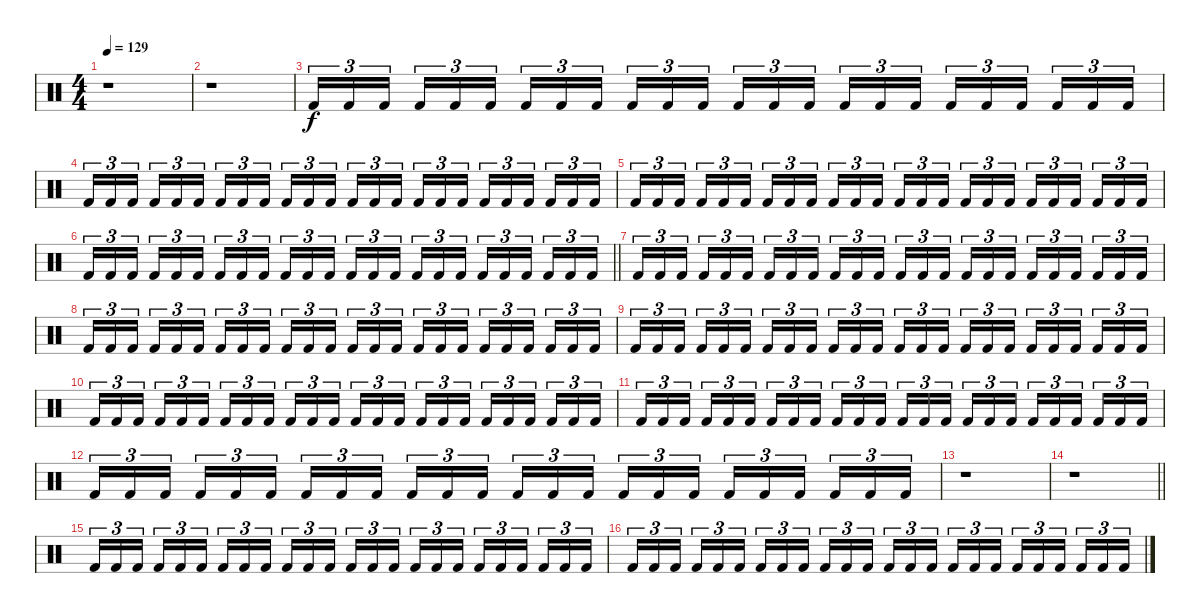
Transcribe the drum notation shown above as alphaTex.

\track "" {instrument percussion}
\staff {score}
\articulation defaults
\ts (4 4)
\tempo 129
\clef neutral
\ks c
r.1{dy f} |
r.1 |
"Kick (hit) 2".16{tu (3 2)} "Kick (hit) 2".16{tu (3 2)} "Kick (hit) 2".16{tu (3 2) beam splitsecondary} "Kick (hit) 2".16{tu (3 2)} "Kick (hit) 2".16{tu (3 2)} "Kick (hit) 2".16{tu (3 2)} "Kick (hit) 2".16{tu (3 2)} "Kick (hit) 2".16{tu (3 2)} "Kick (hit) 2".16{tu (3 2) beam splitsecondary} "Kick (hit) 2".16{tu (3 2)} "Kick (hit) 2".16{tu (3 2)} "Kick (hit) 2".16{tu (3 2)} "Kick (hit) 2".16{tu (3 2)} "Kick (hit) 2".16{tu (3 2)} "Kick (hit) 2".16{tu (3 2) beam splitsecondary} "Kick (hit) 2".16{tu (3 2)} "Kick (hit) 2".16{tu (3 2)} "Kick (hit) 2".16{tu (3 2)} "Kick (hit) 2".16{tu (3 2)} "Kick (hit) 2".16{tu (3 2)} "Kick (hit) 2".16{tu (3 2) beam splitsecondary} "Kick (hit) 2".16{tu (3 2)} "Kick (hit) 2".16{tu (3 2)} "Kick (hit) 2".16{tu (3 2)} |
"Kick (hit) 2".16{tu (3 2)} "Kick (hit) 2".16{tu (3 2)} "Kick (hit) 2".16{tu (3 2) beam splitsecondary} "Kick (hit) 2".16{tu (3 2)} "Kick (hit) 2".16{tu (3 2)} "Kick (hit) 2".16{tu (3 2)} "Kick (hit) 2".16{tu (3 2)} "Kick (hit) 2".16{tu (3 2)} "Kick (hit) 2".16{tu (3 2) beam splitsecondary} "Kick (hit) 2".16{tu (3 2)} "Kick (hit) 2".16{tu (3 2)} "Kick (hit) 2".16{tu (3 2)} "Kick (hit) 2".16{tu (3 2)} "Kick (hit) 2".16{tu (3 2)} "Kick (hit) 2".16{tu (3 2) beam splitsecondary} "Kick (hit) 2".16{tu (3 2)} "Kick (hit) 2".16{tu (3 2)} "Kick (hit) 2".16{tu (3 2)} "Kick (hit) 2".16{tu (3 2)} "Kick (hit) 2".16{tu (3 2)} "Kick (hit) 2".16{tu (3 2) beam splitsecondary} "Kick (hit) 2".16{tu (3 2)} "Kick (hit) 2".16{tu (3 2)} "Kick (hit) 2".16{tu (3 2)} |
"Kick (hit) 2".16{tu (3 2)} "Kick (hit) 2".16{tu (3 2)} "Kick (hit) 2".16{tu (3 2) beam splitsecondary} "Kick (hit) 2".16{tu (3 2)} "Kick (hit) 2".16{tu (3 2)} "Kick (hit) 2".16{tu (3 2)} "Kick (hit) 2".16{tu (3 2)} "Kick (hit) 2".16{tu (3 2)} "Kick (hit) 2".16{tu (3 2) beam splitsecondary} "Kick (hit) 2".16{tu (3 2)} "Kick (hit) 2".16{tu (3 2)} "Kick (hit) 2".16{tu (3 2)} "Kick (hit) 2".16{tu (3 2)} "Kick (hit) 2".16{tu (3 2)} "Kick (hit) 2".16{tu (3 2) beam splitsecondary} "Kick (hit) 2".16{tu (3 2)} "Kick (hit) 2".16{tu (3 2)} "Kick (hit) 2".16{tu (3 2)} "Kick (hit) 2".16{tu (3 2)} "Kick (hit) 2".16{tu (3 2)} "Kick (hit) 2".16{tu (3 2) beam splitsecondary} "Kick (hit) 2".16{tu (3 2)} "Kick (hit) 2".16{tu (3 2)} "Kick (hit) 2".16{tu (3 2)} |
\barLineRight lightlight "Kick (hit) 2".16{tu (3 2)} "Kick (hit) 2".16{tu (3 2)} "Kick (hit) 2".16{tu (3 2) beam splitsecondary} "Kick (hit) 2".16{tu (3 2)} "Kick (hit) 2".16{tu (3 2)} "Kick (hit) 2".16{tu (3 2)} "Kick (hit) 2".16{tu (3 2)} "Kick (hit) 2".16{tu (3 2)} "Kick (hit) 2".16{tu (3 2) beam splitsecondary} "Kick (hit) 2".16{tu (3 2)} "Kick (hit) 2".16{tu (3 2)} "Kick (hit) 2".16{tu (3 2)} "Kick (hit) 2".16{tu (3 2)} "Kick (hit) 2".16{tu (3 2)} "Kick (hit) 2".16{tu (3 2) beam splitsecondary} "Kick (hit) 2".16{tu (3 2)} "Kick (hit) 2".16{tu (3 2)} "Kick (hit) 2".16{tu (3 2)} "Kick (hit) 2".16{tu (3 2)} "Kick (hit) 2".16{tu (3 2)} "Kick (hit) 2".16{tu (3 2) beam splitsecondary} "Kick (hit) 2".16{tu (3 2)} "Kick (hit) 2".16{tu (3 2)} "Kick (hit) 2".16{tu (3 2)}
|
"Kick (hit) 2".16{tu (3 2)} "Kick (hit) 2".16{tu (3 2)} "Kick (hit) 2".16{tu (3 2) beam splitsecondary} "Kick (hit) 2".16{tu (3 2)} "Kick (hit) 2".16{tu (3 2)} "Kick (hit) 2".16{tu (3 2)} "Kick (hit) 2".16{tu (3 2)} "Kick (hit) 2".16{tu (3 2)} "Kick (hit) 2".16{tu (3 2) beam splitsecondary} "Kick (hit) 2".16{tu (3 2)} "Kick (hit) 2".16{tu (3 2)} "Kick (hit) 2".16{tu (3 2)} "Kick (hit) 2".16{tu (3 2)} "Kick (hit) 2".16{tu (3 2)} "Kick (hit) 2".16{tu (3 2) beam splitsecondary} "Kick (hit) 2".16{tu (3 2)} "Kick (hit) 2".16{tu (3 2)} "Kick (hit) 2".16{tu (3 2)} "Kick (hit) 2".16{tu (3 2)} "Kick (hit) 2".16{tu (3 2)} "Kick (hit) 2".16{tu (3 2) beam splitsecondary} "Kick (hit) 2".16{tu (3 2)} "Kick (hit) 2".16{tu (3 2)} "Kick (hit) 2".16{tu (3 2)} |
"Kick (hit) 2".16{tu (3 2)} "Kick (hit) 2".16{tu (3 2)} "Kick (hit) 2".16{tu (3 2) beam splitsecondary} "Kick (hit) 2".16{tu (3 2)} "Kick (hit) 2".16{tu (3 2)} "Kick (hit) 2".16{tu (3 2)} "Kick (hit) 2".16{tu (3 2)} "Kick (hit) 2".16{tu (3 2)} "Kick (hit) 2".16{tu (3 2) beam splitsecondary} "Kick (hit) 2".16{tu (3 2)} "Kick (hit) 2".16{tu (3 2)} "Kick (hit) 2".16{tu (3 2)} "Kick (hit) 2".16{tu (3 2)} "Kick (hit) 2".16{tu (3 2)} "Kick (hit) 2".16{tu (3 2) beam splitsecondary} "Kick (hit) 2".16{tu (3 2)} "Kick (hit) 2".16{tu (3 2)} "Kick (hit) 2".16{tu (3 2)} "Kick (hit) 2".16{tu (3 2)} "Kick (hit) 2".16{tu (3 2)} "Kick (hit) 2".16{tu (3 2) beam splitsecondary} "Kick (hit) 2".16{tu (3 2)} "Kick (hit) 2".16{tu (3 2)} "Kick (hit) 2".16{tu (3 2)} |
"Kick (hit) 2".16{tu (3 2)} "Kick (hit) 2".16{tu (3 2)} "Kick (hit) 2".16{tu (3 2) beam splitsecondary} "Kick (hit) 2".16{tu (3 2)} "Kick (hit) 2".16{tu (3 2)} "Kick (hit) 2".16{tu (3 2)} "Kick (hit) 2".16{tu (3 2)} "Kick (hit) 2".16{tu (3 2)} "Kick (hit) 2".16{tu (3 2) beam splitsecondary} "Kick (hit) 2".16{tu (3 2)} "Kick (hit) 2".16{tu (3 2)} "Kick (hit) 2".16{tu (3 2)} "Kick (hit) 2".16{tu (3 2)} "Kick (hit) 2".16{tu (3 2)} "Kick (hit) 2".16{tu (3 2) beam splitsecondary} "Kick (hit) 2".16{tu (3 2)} "Kick (hit) 2".16{tu (3 2)} "Kick (hit) 2".16{tu (3 2)} "Kick (hit) 2".16{tu (3 2)} "Kick (hit) 2".16{tu (3 2)} "Kick (hit) 2".16{tu (3 2) beam splitsecondary} "Kick (hit) 2".16{tu (3 2)} "Kick (hit) 2".16{tu (3 2)} "Kick (hit) 2".16{tu (3 2)} |
"Kick (hit) 2".16{tu (3 2)} "Kick (hit) 2".16{tu (3 2)} "Kick (hit) 2".16{tu (3 2) beam splitsecondary} "Kick (hit) 2".16{tu (3 2)} "Kick (hit) 2".16{tu (3 2)} "Kick (hit) 2".16{tu (3 2)} "Kick (hit) 2".16{tu (3 2)} "Kick (hit) 2".16{tu (3 2)} "Kick (hit) 2".16{tu (3 2) beam splitsecondary} "Kick (hit) 2".16{tu (3 2)} "Kick (hit) 2".16{tu (3 2)} "Kick (hit) 2".16{tu (3 2)} "Kick (hit) 2".16{tu (3 2)} "Kick (hit) 2".16{tu (3 2)} "Kick (hit) 2".16{tu (3 2) beam splitsecondary} "Kick (hit) 2".16{tu (3 2)} "Kick (hit) 2".16{tu (3 2)} "Kick (hit) 2".16{tu (3 2)} "Kick (hit) 2".16{tu (3 2)} "Kick (hit) 2".16{tu (3 2)} "Kick (hit) 2".16{tu (3 2) beam splitsecondary} "Kick (hit) 2".16{tu (3 2)} "Kick (hit) 2".16{tu (3 2)} "Kick (hit) 2".16{tu (3 2)} |
"Kick (hit) 2".16{tu (3 2)} "Kick (hit) 2".16{tu (3 2)} "Kick (hit) 2".16{tu (3 2) beam splitsecondary} "Kick (hit) 2".16{tu (3 2)} "Kick (hit) 2".16{tu (3 2)} "Kick (hit) 2".16{tu (3 2)} "Kick (hit) 2".16{tu (3 2)} "Kick (hit) 2".16{tu (3 2)} "Kick (hit) 2".16{tu (3 2) beam splitsecondary} "Kick (hit) 2".16{tu (3 2)} "Kick (hit) 2".16{tu (3 2)} "Kick (hit) 2".16{tu (3 2)} "Kick (hit) 2".16{tu (3 2)} "Kick (hit) 2".16{tu (3 2)} "Kick (hit) 2".16{tu (3 2) beam splitsecondary} "Kick (hit) 2".16{tu (3 2)} "Kick (hit) 2".16{tu (3 2)} "Kick (hit) 2".16{tu (3 2)} "Kick (hit) 2".16{tu (3 2)} "Kick (hit) 2".16{tu (3 2)} "Kick (hit) 2".16{tu (3 2) beam splitsecondary} "Kick (hit) 2".16{tu (3 2)} "Kick (hit) 2".16{tu (3 2)} "Kick (hit) 2".16{tu (3 2)} |
"Kick (hit) 2".16{tu (3 2)} "Kick (hit) 2".16{tu (3 2)} "Kick (hit) 2".16{tu (3 2) beam splitsecondary} "Kick (hit) 2".16{tu (3 2)} "Kick (hit) 2".16{tu (3 2)} "Kick (hit) 2".16{tu (3 2)} "Kick (hit) 2".16{tu (3 2)} "Kick (hit) 2".16{tu (3 2)} "Kick (hit) 2".16{tu (3 2) beam splitsecondary} "Kick (hit) 2".16{tu (3 2)} "Kick (hit) 2".16{tu (3 2)} "Kick (hit) 2".16{tu (3 2)} "Kick (hit) 2".16{tu (3 2)} "Kick (hit) 2".16{tu (3 2)} "Kick (hit) 2".16{tu (3 2) beam splitsecondary} "Kick (hit) 2".16{tu (3 2)} "Kick (hit) 2".16{tu (3 2)} "Kick (hit) 2".16{tu (3 2)} "Kick (hit) 2".16{tu (3 2)} "Kick (hit) 2".16{tu (3 2)} "Kick (hit) 2".16{tu (3 2) beam splitsecondary} "Kick (hit) 2".16{tu (3 2)} "Kick (hit) 2".16{tu (3 2)} "Kick (hit) 2".16{tu (3 2)} |
r.1 |
\barLineRight lightlight
r.1 |
"Kick (hit) 2".16{tu (3 2)} "Kick (hit) 2".16{tu (3 2)} "Kick (hit) 2".16{tu (3 2) beam splitsecondary} "Kick (hit) 2".16{tu (3 2)} "Kick (hit) 2".16{tu (3 2)} "Kick (hit) 2".16{tu (3 2)} "Kick (hit) 2".16{tu (3 2)} "Kick (hit) 2".16{tu (3 2)} "Kick (hit) 2".16{tu (3 2) beam splitsecondary} "Kick (hit) 2".16{tu (3 2)} "Kick (hit) 2".16{tu (3 2)} "Kick (hit) 2".16{tu (3 2)} "Kick (hit) 2".16{tu (3 2)} "Kick (hit) 2".16{tu (3 2)} "Kick (hit) 2".16{tu (3 2) beam splitsecondary} "Kick (hit) 2".16{tu (3 2)} "Kick (hit) 2".16{tu (3 2)} "Kick (hit) 2".16{tu (3 2)} "Kick (hit) 2".16{tu (3 2)} "Kick (hit) 2".16{tu (3 2)} "Kick (hit) 2".16{tu (3 2) beam splitsecondary} "Kick (hit) 2".16{tu (3 2)} "Kick (hit) 2".16{tu (3 2)} "Kick (hit) 2".16{tu (3 2)} |
"Kick (hit) 2".16{tu (3 2)} "Kick (hit) 2".16{tu (3 2)} "Kick (hit) 2".16{tu (3 2) beam splitsecondary} "Kick (hit) 2".16{tu (3 2)} "Kick (hit) 2".16{tu (3 2)} "Kick (hit) 2".16{tu (3 2)} "Kick (hit) 2".16{tu (3 2)} "Kick (hit) 2".16{tu (3 2)} "Kick (hit) 2".16{tu (3 2) beam splitsecondary} "Kick (hit) 2".16{tu (3 2)} "Kick (hit) 2".16{tu (3 2)} "Kick (hit) 2".16{tu (3 2)} "Kick (hit) 2".16{tu (3 2)} "Kick (hit) 2".16{tu (3 2)} "Kick (hit) 2".16{tu (3 2) beam splitsecondary} "Kick (hit) 2".16{tu (3 2)} "Kick (hit) 2".16{tu (3 2)} "Kick (hit) 2".16{tu (3 2)} "Kick (hit) 2".16{tu (3 2)} "Kick (hit) 2".16{tu (3 2)} "Kick (hit) 2".16{tu (3 2) beam splitsecondary} "Kick (hit) 2".16{tu (3 2)} "Kick (hit) 2".16{tu (3 2)} "Kick (hit) 2".16{tu (3 2)}
